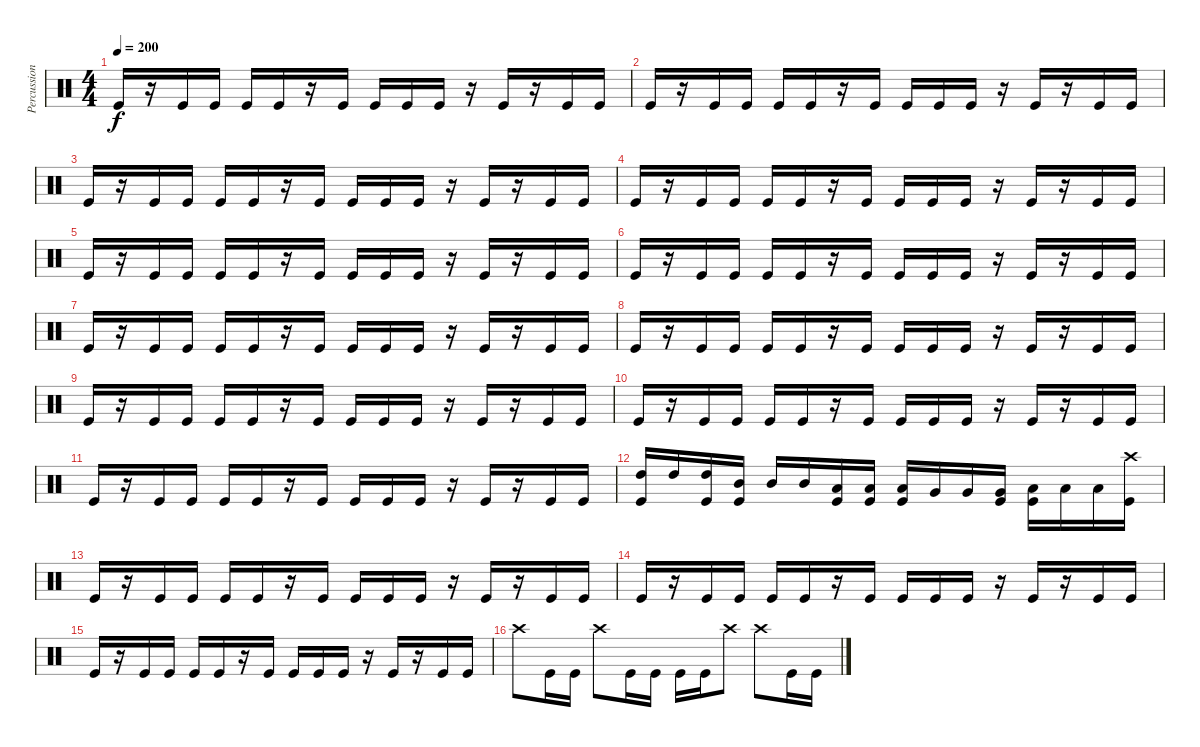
\track ("Percussion" "Percussion") {instrument percussion}
\staff {score}
\articulation defaults
\ts (4 4)
\tempo 200
\clef neutral
\ks c "Kick (hit)".16{dy f}
r.16 "Kick (hit)".16 "Kick (hit)".16 "Kick (hit)".16 "Kick (hit)".16 r.16 "Kick (hit)".16 "Kick (hit)".16 "Kick (hit)".16 "Kick (hit)".16 r.16 "Kick (hit)".16 r.16 "Kick (hit)".16 "Kick (hit)".16 |
"Kick (hit)".16 r.16 "Kick (hit)".16 "Kick (hit)".16 "Kick (hit)".16 "Kick (hit)".16 r.16 "Kick (hit)".16 "Kick (hit)".16 "Kick (hit)".16 "Kick (hit)".16 r.16 "Kick (hit)".16 r.16 "Kick (hit)".16 "Kick (hit)".16 |
"Kick (hit)".16 r.16 "Kick (hit)".16 "Kick (hit)".16 "Kick (hit)".16 "Kick (hit)".16 r.16 "Kick (hit)".16 "Kick (hit)".16 "Kick (hit)".16 "Kick (hit)".16 r.16 "Kick (hit)".16 r.16 "Kick (hit)".16 "Kick (hit)".16 |
"Kick (hit)".16 r.16 "Kick (hit)".16 "Kick (hit)".16 "Kick (hit)".16 "Kick (hit)".16 r.16 "Kick (hit)".16 "Kick (hit)".16 "Kick (hit)".16 "Kick (hit)".16 r.16 "Kick (hit)".16 r.16 "Kick (hit)".16 "Kick (hit)".16 |
"Kick (hit)".16 r.16 "Kick (hit)".16 "Kick (hit)".16 "Kick (hit)".16 "Kick (hit)".16 r.16 "Kick (hit)".16 "Kick (hit)".16 "Kick (hit)".16 "Kick (hit)".16 r.16 "Kick (hit)".16 r.16 "Kick (hit)".16 "Kick (hit)".16 |
"Kick (hit)".16 r.16 "Kick (hit)".16 "Kick (hit)".16 "Kick (hit)".16 "Kick (hit)".16 r.16 "Kick (hit)".16 "Kick (hit)".16 "Kick (hit)".16 "Kick (hit)".16 r.16 "Kick (hit)".16 r.16 "Kick (hit)".16 "Kick (hit)".16 |
"Kick (hit)".16 r.16 "Kick (hit)".16 "Kick (hit)".16 "Kick (hit)".16 "Kick (hit)".16 r.16 "Kick (hit)".16 "Kick (hit)".16 "Kick (hit)".16 "Kick (hit)".16 r.16 "Kick (hit)".16 r.16 "Kick (hit)".16 "Kick (hit)".16 |
"Kick (hit)".16 r.16 "Kick (hit)".16 "Kick (hit)".16 "Kick (hit)".16 "Kick (hit)".16 r.16 "Kick (hit)".16 "Kick (hit)".16 "Kick (hit)".16 "Kick (hit)".16 r.16 "Kick (hit)".16 r.16 "Kick (hit)".16 "Kick (hit)".16 |
"Kick (hit)".16 r.16 "Kick (hit)".16 "Kick (hit)".16 "Kick (hit)".16 "Kick (hit)".16 r.16 "Kick (hit)".16 "Kick (hit)".16 "Kick (hit)".16 "Kick (hit)".16 r.16 "Kick (hit)".16 r.16 "Kick (hit)".16 "Kick (hit)".16 |
"Kick (hit)".16 r.16 "Kick (hit)".16 "Kick (hit)".16 "Kick (hit)".16 "Kick (hit)".16 r.16 "Kick (hit)".16 "Kick (hit)".16 "Kick (hit)".16 "Kick (hit)".16 r.16 "Kick (hit)".16 r.16 "Kick (hit)".16 "Kick (hit)".16 |
"Kick (hit)".16 r.16 "Kick (hit)".16 "Kick (hit)".16 "Kick (hit)".16 "Kick (hit)".16 r.16 "Kick (hit)".16 "Kick (hit)".16 "Kick (hit)".16 "Kick (hit)".16 r.16 "Kick (hit)".16 r.16 "Kick (hit)".16 "Kick (hit)".16 |
("High Tom (hit)" "Kick (hit)").16 "High Tom (hit)".16 ("High Tom (hit)" "Kick (hit)").16 ("Mid Tom (hit)" "Kick (hit)").16 "Mid Tom (hit)".16 "Mid Tom (hit)".16 ("Low Tom (hit)" "Kick (hit)").16 ("Low Tom (hit)" "Kick (hit)").16 ("Low Tom (hit)" "Kick (hit)").16 "Very Low Tom (hit)".16 "Very Low Tom (hit)".16 ("Very Low Tom (hit)" "Kick (hit)").16 ("Low Floor Tom (hit)" "Kick (hit)").16 "Low Floor Tom (hit)".16 "Low Floor Tom (hit)".16 ("Crash high (hit)" "Kick (hit)").16 |
"Kick (hit)".16 r.16 "Kick (hit)".16 "Kick (hit)".16 "Kick (hit)".16 "Kick (hit)".16 r.16 "Kick (hit)".16 "Kick (hit)".16 "Kick (hit)".16 "Kick (hit)".16 r.16 "Kick (hit)".16 r.16 "Kick (hit)".16 "Kick (hit)".16 |
"Kick (hit)".16 r.16 "Kick (hit)".16 "Kick (hit)".16 "Kick (hit)".16 "Kick (hit)".16 r.16 "Kick (hit)".16 "Kick (hit)".16 "Kick (hit)".16 "Kick (hit)".16 r.16 "Kick (hit)".16 r.16 "Kick (hit)".16 "Kick (hit)".16 |
"Kick (hit)".16 r.16 "Kick (hit)".16 "Kick (hit)".16 "Kick (hit)".16 "Kick (hit)".16 r.16 "Kick (hit)".16 "Kick (hit)".16 "Kick (hit)".16 "Kick (hit)".16 r.16 "Kick (hit)".16 r.16 "Kick (hit)".16 "Kick (hit)".16 |
"Crash high (hit)".8 "Kick (hit)".16 "Kick (hit)".16 "Crash high (hit)".8 "Kick (hit)".16 "Kick (hit)".16 "Kick (hit)".16 "Kick (hit)".16 "Crash high (hit)".8 "Crash high (hit)".8 "Kick (hit)".16 "Kick (hit)".16
